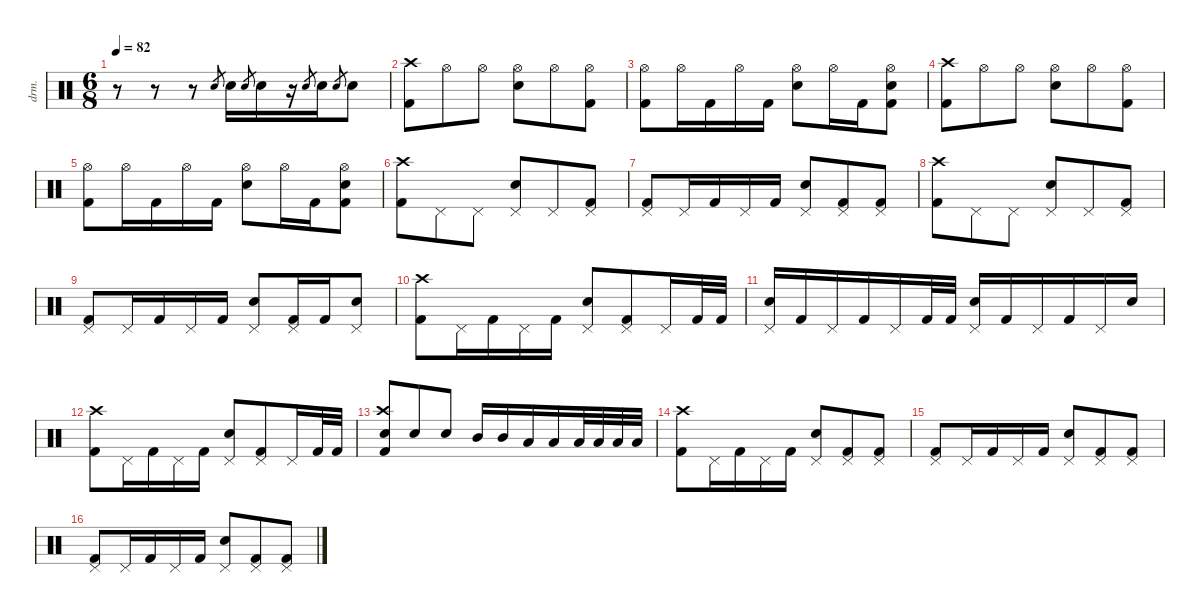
\defaultSystemsLayout 4
\hideDynamics
\bracketExtendMode nobrackets
\otherSystemsTrackNameOrientation horizontal
\track ("Drums" "drm.") {instrument percussion}
\staff {score}
\articulation defaults
\ts (6 8)
\tempo 82
\clef neutral
\ks c
r.8{dy mf} r.8 r.8 "Electric Snare (hit)".8{gr} "Snare (hit) 2".16{dy f} "Electric Snare (hit)".8{gr dy mf} "Snare (hit) 2".16{dy f} r.16 "Electric Snare (hit)".8{gr dy mf} "Snare (hit) 2".16{dy f} "Electric Snare (hit)".8{gr dy mf} "Snare (hit) 2".8{dy f} |
("Crash high (hit)" "Kick (hit) 2").8 "Hi-Hat (open)".8 "Hi-Hat (open)".8 ("Hi-Hat (open)" "Snare (hit) 2").8 "Hi-Hat (open)".8 ("Hi-Hat (open)" "Kick (hit) 2").8 |
("Hi-Hat (open)" "Kick (hit) 2").8 "Hi-Hat (open)".16 "Kick (hit) 2".16 "Hi-Hat (open)".16 "Kick (hit) 2".16 ("Hi-Hat (open)" "Snare (hit) 2").8 "Hi-Hat (open)".16 "Kick (hit) 2".16 ("Hi-Hat (open)" "Snare (hit) 2" "Kick (hit) 2").8 |
("Crash high (hit)" "Kick (hit) 2").8 "Hi-Hat (open)".8 "Hi-Hat (open)".8 ("Hi-Hat (open)" "Snare (hit) 2").8 "Hi-Hat (open)".8 ("Hi-Hat (open)" "Kick (hit) 2").8 |
("Hi-Hat (open)" "Kick (hit) 2").8 "Hi-Hat (open)".16 "Kick (hit) 2".16 "Hi-Hat (open)".16 "Kick (hit) 2".16 ("Hi-Hat (open)" "Snare (hit) 2").8 "Hi-Hat (open)".16 "Kick (hit) 2".16 ("Hi-Hat (open)" "Snare (hit) 2" "Kick (hit) 2").8 |
("Crash high (hit)" "Kick (hit) 2").8 "Pedal Hi-Hat (hit)".8 "Pedal Hi-Hat (hit)".8 ("Pedal Hi-Hat (hit)" "Snare (hit) 2").8 "Pedal Hi-Hat (hit)".8 ("Pedal Hi-Hat (hit)" "Kick (hit) 2").8 |
("Pedal Hi-Hat (hit)" "Kick (hit) 2").8 "Pedal Hi-Hat (hit)".16 "Kick (hit) 2".16 "Pedal Hi-Hat (hit)".16 "Kick (hit) 2".16 ("Pedal Hi-Hat (hit)" "Snare (hit) 2").8 ("Pedal Hi-Hat (hit)" "Kick (hit) 2").8 ("Pedal Hi-Hat (hit)" "Kick (hit) 2").8 |
("Crash high (hit)" "Kick (hit) 2").8 "Pedal Hi-Hat (hit)".8 "Pedal Hi-Hat (hit)".8 ("Pedal Hi-Hat (hit)" "Snare (hit) 2").8 "Pedal Hi-Hat (hit)".8 ("Pedal Hi-Hat (hit)" "Kick (hit) 2").8 |
("Pedal Hi-Hat (hit)" "Kick (hit) 2").8 "Pedal Hi-Hat (hit)".16 "Kick (hit) 2".16 "Pedal Hi-Hat (hit)".16 "Kick (hit) 2".16 ("Pedal Hi-Hat (hit)" "Snare (hit) 2").8 ("Pedal Hi-Hat (hit)" "Kick (hit) 2").16 "Kick (hit) 2".16 ("Pedal Hi-Hat (hit)" "Snare (hit) 2").8 |
("Crash high (hit)" "Kick (hit) 2").8 "Pedal Hi-Hat (hit)".16 "Kick (hit) 2".16 "Pedal Hi-Hat (hit)".16 "Kick (hit) 2".16 ("Pedal Hi-Hat (hit)" "Snare (hit) 2").8 ("Pedal Hi-Hat (hit)" "Kick (hit) 2").8 "Pedal Hi-Hat (hit)".16 "Kick (hit) 2".32 "Kick (hit) 2".32 |
("Pedal Hi-Hat (hit)" "Snare (hit) 2").16 "Kick (hit) 2".16 "Pedal Hi-Hat (hit)".16 "Kick (hit) 2".16 "Pedal Hi-Hat (hit)".16 "Kick (hit) 2".32 "Kick (hit) 2".32 ("Pedal Hi-Hat (hit)" "Snare (hit) 2").16 "Kick (hit) 2".16 "Pedal Hi-Hat (hit)".16 "Kick (hit) 2".16 "Pedal Hi-Hat (hit)".16 "Snare (hit) 2".16 |
("Crash high (hit)" "Kick (hit) 2").8 "Pedal Hi-Hat (hit)".16 "Kick (hit) 2".16 "Pedal Hi-Hat (hit)".16 "Kick (hit) 2".16 ("Pedal Hi-Hat (hit)" "Snare (hit) 2").8 ("Pedal Hi-Hat (hit)" "Kick (hit) 2").8 "Pedal Hi-Hat (hit)".16 "Kick (hit) 2".32 "Kick (hit) 2".32 |
("Crash high (hit)" "Snare (hit) 2" "Kick (hit) 2").8 "Snare (hit) 2".8 "Snare (hit) 2".8 "Mid Tom (hit)".16 "Mid Tom (hit)".16 "Low Tom (hit)".16 "Low Tom (hit)".16 "Low Tom (hit)".32 "Low Tom (hit)".32 "Low Tom (hit)".32 "Low Tom (hit)".32 |
("Crash high (hit)" "Kick (hit) 2").8 "Pedal Hi-Hat (hit)".16 "Kick (hit) 2".16 "Pedal Hi-Hat (hit)".16 "Kick (hit) 2".16 ("Pedal Hi-Hat (hit)" "Snare (hit) 2").8 ("Pedal Hi-Hat (hit)" "Kick (hit) 2").8 ("Pedal Hi-Hat (hit)" "Kick (hit) 2").8 |
("Pedal Hi-Hat (hit)" "Kick (hit) 2").8 "Pedal Hi-Hat (hit)".16 "Kick (hit) 2".16 "Pedal Hi-Hat (hit)".16 "Kick (hit) 2".16 ("Pedal Hi-Hat (hit)" "Snare (hit) 2").8 ("Pedal Hi-Hat (hit)" "Kick (hit) 2").8 ("Pedal Hi-Hat (hit)" "Kick (hit) 2").8 |
("Pedal Hi-Hat (hit)" "Kick (hit) 2").8 "Pedal Hi-Hat (hit)".16 "Kick (hit) 2".16 "Pedal Hi-Hat (hit)".16 "Kick (hit) 2".16 ("Pedal Hi-Hat (hit)" "Snare (hit) 2").8 ("Pedal Hi-Hat (hit)" "Kick (hit) 2").8 ("Pedal Hi-Hat (hit)" "Kick (hit) 2").8
